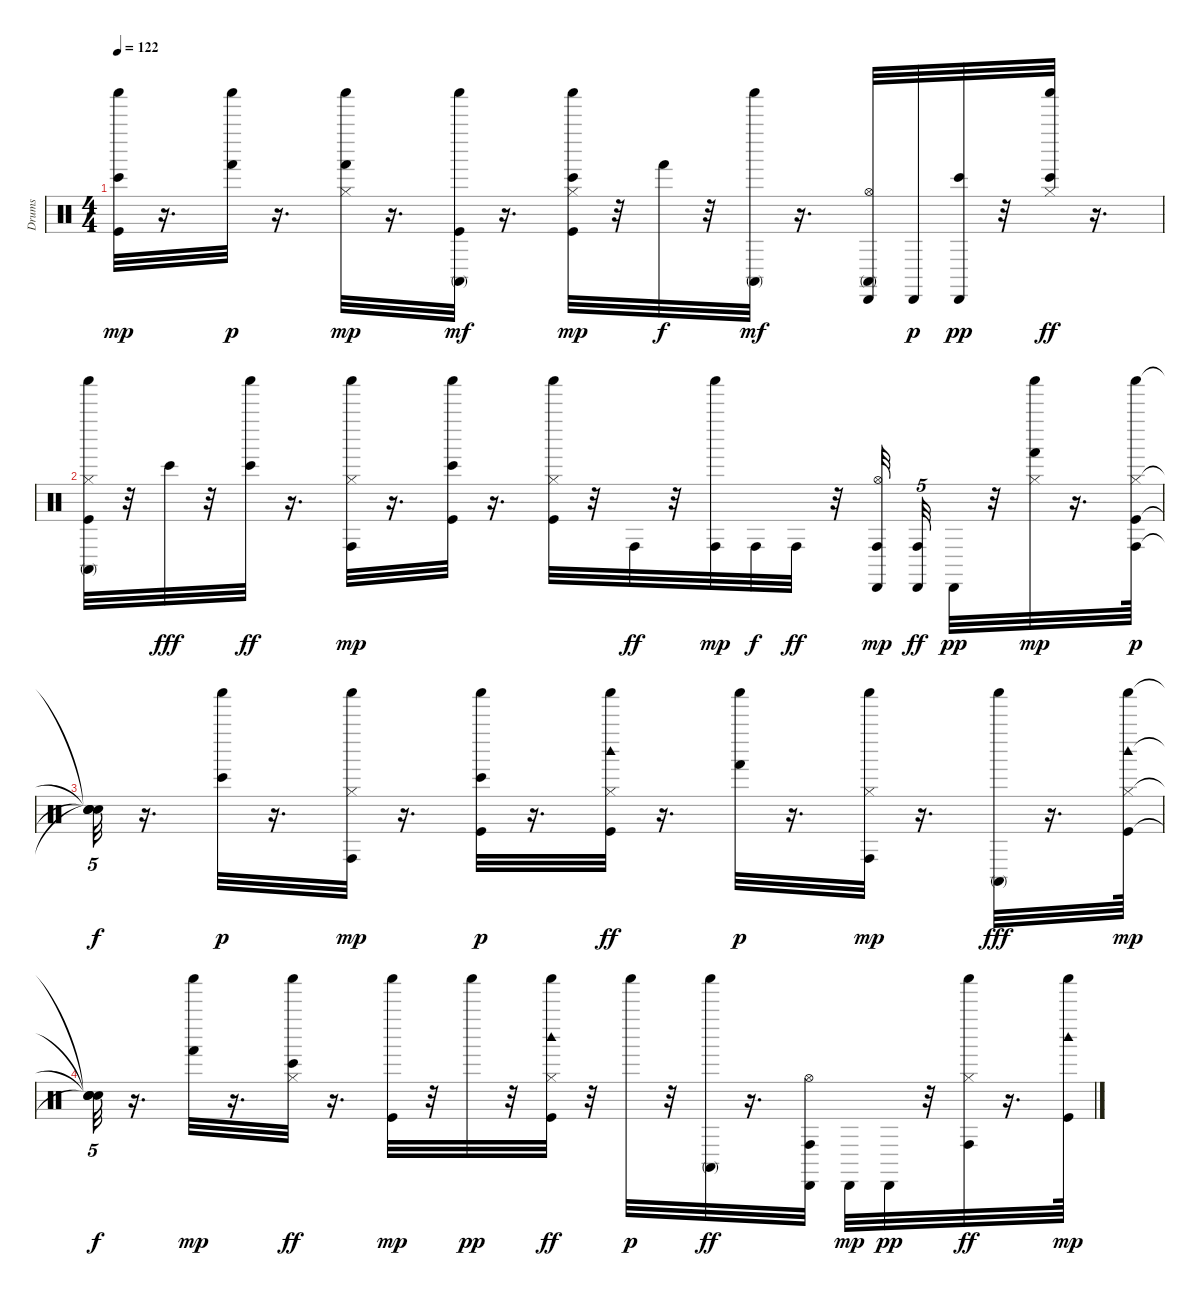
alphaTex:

\track ("Drums" "Drums") {instrument percussion}
\staff {score}
\articulation defaults
\ts (4 4)
\tempo 122
\clef neutral
\ks c
("Kick (hit)" "Bongo High (hit)" "Shaker (hit)").32{dy mp} r.16{d} ("Hand (hit)" "Shaker (hit)").32{dy p} r.16{d} ("Shaker (hit)" "Hi-Hat (closed)" "Hand (hit)").32{dy mp} r.16{d} ("Shaker (hit)" "Kick (hit)" "Conga high (mute)").32{dy mf} r.16{d} ("Shaker (hit)" "Kick (hit)" "Hi-Hat (closed)" "Bongo High (hit)").32{dy mp} r.32 "Hand (hit)".32{dy f} r.32 ("Shaker (hit)" "Conga high (mute)").32{dy mf} r.16{d} ("Hi-Hat (open)" "Conga high (mute)" "Cabasa (hit)").32 "Cabasa (hit)".32{dy p} ("Bongo High (hit)" "Cabasa (hit)").32{dy pp} r.32 ("Shaker (hit)" "Hi-Hat (closed)" "Bongo High (hit)").32{dy ff} r.16{d} |
("Shaker (hit)" "Kick (hit)" "Hi-Hat (closed)" "Conga high (mute)").32 r.32 "Bongo High (hit)".32{dy fff} r.32 ("Shaker (hit)" "Bongo High (hit)").32{dy ff} r.16{d} ("Shaker (hit)" "Hi-Hat (closed)" "Conga high (hit)").32{dy mp} r.16{d} ("Bongo High (hit)" "Shaker (hit)" "Kick (hit)").32 r.16{d} ("Shaker (hit)" "Kick (hit)" "Hi-Hat (closed)").32 r.32 "Conga high (hit)".32{dy ff} r.32 ("Conga high (hit)" "Shaker (hit)").32{dy mp} "Conga high (hit)".32{dy f} "Conga high (hit)".32{dy ff} r.32 ("Conga high (hit)" "Hi-Hat (open)" "Cabasa (hit)").32{dy mp beam splitsecondary} ("Cabasa (hit)" "Conga high (hit)").32{tu (5 4) dy ff} "Cabasa (hit)".32{dy pp} r.32 ("Shaker (hit)" "Hi-Hat (closed)" "Hand (hit)").32{dy mp} r.16{d} ("Kick (hit)" "Hi-Hat (closed)" "Conga high (hit)" "Shaker (hit)").64{dy p} |
("Snare (hit)"{t} "Snare (hit)"{t} "Snare (hit)"{t} "Snare (hit)"{t}).32{tu (5 4) dy f} r.16{d} ("Bongo High (hit)" "Shaker (hit)").32{dy p} r.16{d} ("Shaker (hit)" "Hi-Hat (closed)" "Conga high (hit)").32{dy mp} r.16{d} ("Bongo High (hit)" "Shaker (hit)" "Kick (hit)").32{dy p} r.16{d} ("Shaker (hit)" "Kick (hit)" "Hi-Hat (closed)" "Woodblock high (hit)").32{dy ff} r.16{d} ("Hand (hit)" "Shaker (hit)").32{dy p} r.16{d} ("Shaker (hit)" "Hi-Hat (closed)" "Conga high (hit)").32{dy mp} r.16{d} ("Shaker (hit)" "Conga high (mute)").32{dy fff} r.16{d} ("Shaker (hit)" "Kick (hit)" "Hi-Hat (closed)" "Woodblock high (hit)").64{dy mp} |
("Snare (hit)"{t} "Snare (hit)"{t} "Snare (hit)"{t} "Snare (hit)"{t}).32{tu (5 4) dy f} r.16{d} ("Hand (hit)" "Shaker (hit)").32{dy mp} r.16{d} ("Shaker (hit)" "Hi-Hat (closed)" "Bongo High (hit)").32{dy ff} r.16{d} ("Shaker (hit)" "Kick (hit)").32{dy mp} r.32 "Shaker (hit)".32{dy pp} r.32 ("Shaker (hit)" "Kick (hit)" "Hi-Hat (closed)" "Woodblock high (hit)").32{dy ff} r.32 "Shaker (hit)".32{dy p} r.32 ("Shaker (hit)" "Conga high (mute)").32{dy ff} r.16{d} ("Hi-Hat (open)" "Conga high (hit)" "Cabasa (hit)").32 "Cabasa (hit)".32{dy mp} "Cabasa (hit)".32{dy pp} r.32 ("Shaker (hit)" "Hi-Hat (closed)" "Conga high (hit)").32{dy ff} r.16{d} ("Woodblock high (hit)" "Kick (hit)" "Shaker (hit)").64{dy mp}
